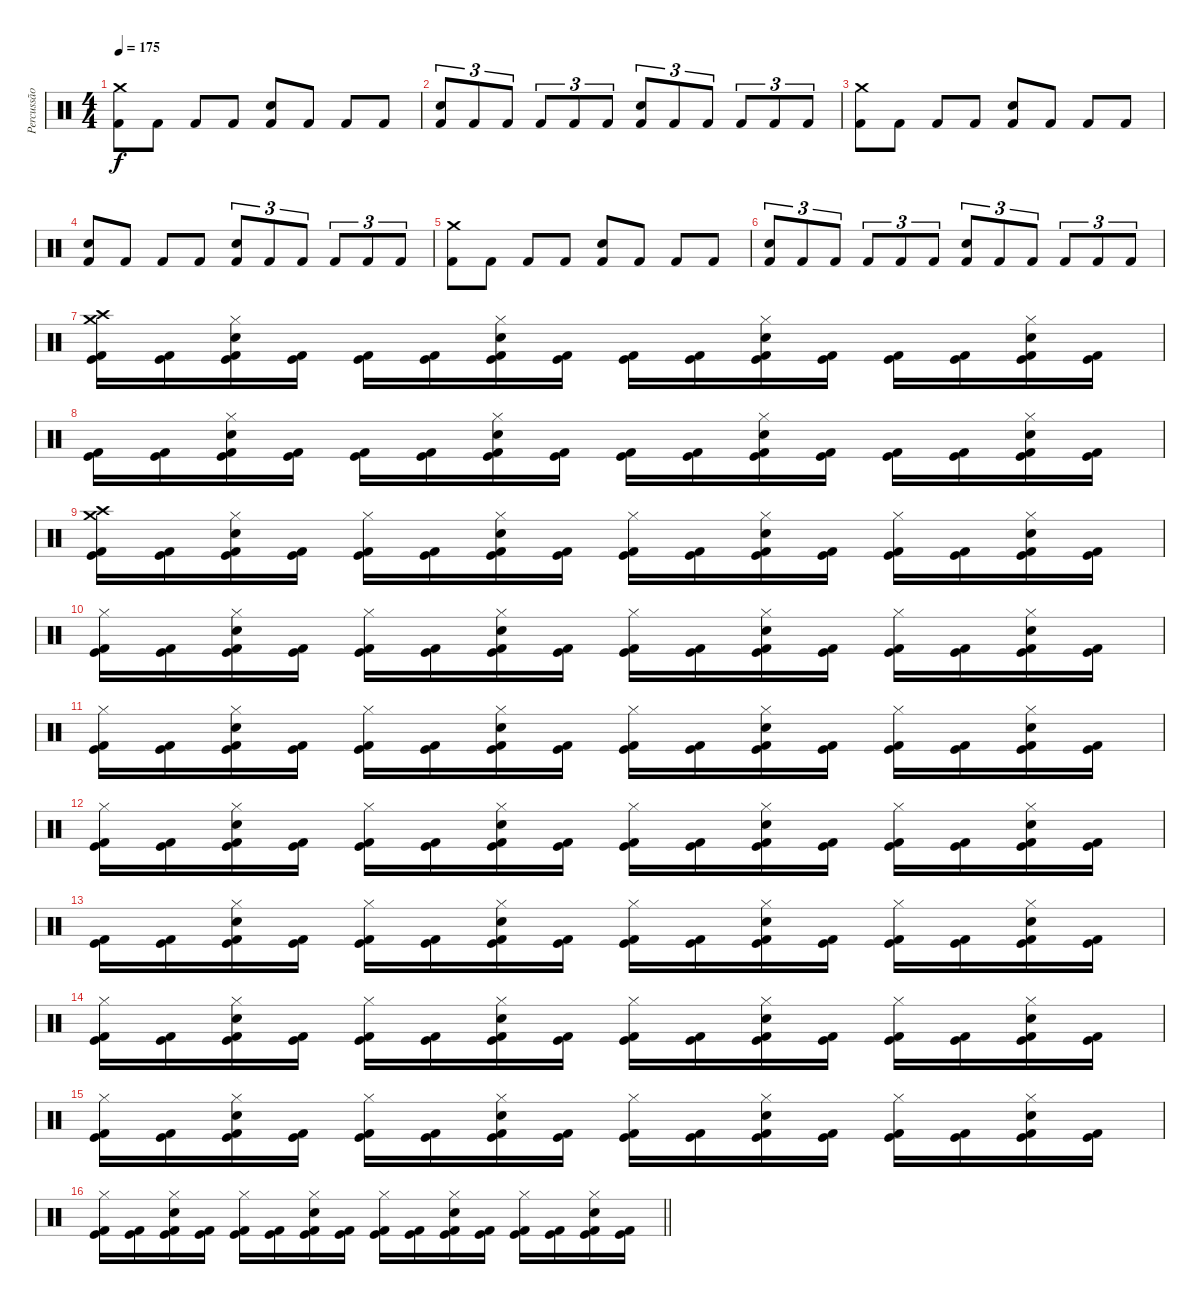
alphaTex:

\track ("Percussão" "Percussão") {instrument percussion}
\staff {score}
\articulation defaults
\ts (4 4)
\tempo 175
\clef neutral
\ks c
("Kick (hit) 2" "Crash medium (hit)").8{dy f} "Kick (hit) 2".8 "Kick (hit) 2".8 "Kick (hit) 2".8 ("Kick (hit) 2" "Electric Snare (hit)").8 "Kick (hit) 2".8 "Kick (hit) 2".8 "Kick (hit) 2".8 |
("Kick (hit) 2" "Electric Snare (hit)").8{tu (3 2)} "Kick (hit) 2".8{tu (3 2)} "Kick (hit) 2".8{tu (3 2)} "Kick (hit) 2".8{tu (3 2)} "Kick (hit) 2".8{tu (3 2)} "Kick (hit) 2".8{tu (3 2)} ("Kick (hit) 2" "Electric Snare (hit)").8{tu (3 2)} "Kick (hit) 2".8{tu (3 2)} "Kick (hit) 2".8{tu (3 2)} "Kick (hit) 2".8{tu (3 2)} "Kick (hit) 2".8{tu (3 2)} "Kick (hit) 2".8{tu (3 2)} |
("Kick (hit) 2" "Crash medium (hit)").8 "Kick (hit) 2".8 "Kick (hit) 2".8 "Kick (hit) 2".8 ("Kick (hit) 2" "Electric Snare (hit)").8 "Kick (hit) 2".8 "Kick (hit) 2".8 "Kick (hit) 2".8 |
("Kick (hit) 2" "Electric Snare (hit)").8 "Kick (hit) 2".8 "Kick (hit) 2".8 "Kick (hit) 2".8 ("Kick (hit) 2" "Electric Snare (hit)").8{tu (3 2)} "Kick (hit) 2".8{tu (3 2)} "Kick (hit) 2".8{tu (3 2)} "Kick (hit) 2".8{tu (3 2)} "Kick (hit) 2".8{tu (3 2)} "Kick (hit) 2".8{tu (3 2)} |
("Kick (hit) 2" "Crash medium (hit)").8 "Kick (hit) 2".8 "Kick (hit) 2".8 "Kick (hit) 2".8 ("Kick (hit) 2" "Electric Snare (hit)").8 "Kick (hit) 2".8 "Kick (hit) 2".8 "Kick (hit) 2".8 |
("Kick (hit) 2" "Electric Snare (hit)").8{tu (3 2)} "Kick (hit) 2".8{tu (3 2)} "Kick (hit) 2".8{tu (3 2)} "Kick (hit) 2".8{tu (3 2)} "Kick (hit) 2".8{tu (3 2)} "Kick (hit) 2".8{tu (3 2)} ("Kick (hit) 2" "Electric Snare (hit)").8{tu (3 2)} "Kick (hit) 2".8{tu (3 2)} "Kick (hit) 2".8{tu (3 2)} "Kick (hit) 2".8{tu (3 2)} "Kick (hit) 2".8{tu (3 2)} "Kick (hit) 2".8{tu (3 2)} |
("Crash high (hit)" "Crash medium (hit)" "Kick (hit)" "Kick (hit) 2").16 ("Kick (hit)" "Kick (hit) 2").16 ("Hi-Hat (closed)" "Electric Snare (hit)" "Kick (hit)" "Kick (hit) 2").16 ("Kick (hit)" "Kick (hit) 2").16 ("Kick (hit)" "Kick (hit) 2").16 ("Kick (hit)" "Kick (hit) 2").16 ("Hi-Hat (closed)" "Electric Snare (hit)" "Kick (hit)" "Kick (hit) 2").16 ("Kick (hit)" "Kick (hit) 2").16 ("Kick (hit)" "Kick (hit) 2").16 ("Kick (hit)" "Kick (hit) 2").16 ("Hi-Hat (closed)" "Electric Snare (hit)" "Kick (hit)" "Kick (hit) 2").16 ("Kick (hit)" "Kick (hit) 2").16 ("Kick (hit)" "Kick (hit) 2").16 ("Kick (hit)" "Kick (hit) 2").16 ("Hi-Hat (closed)" "Electric Snare (hit)" "Kick (hit)" "Kick (hit) 2").16 ("Kick (hit)" "Kick (hit) 2").16 |
("Kick (hit)" "Kick (hit) 2").16 ("Kick (hit)" "Kick (hit) 2").16 ("Hi-Hat (closed)" "Electric Snare (hit)" "Kick (hit)" "Kick (hit) 2").16 ("Kick (hit)" "Kick (hit) 2").16 ("Kick (hit)" "Kick (hit) 2").16 ("Kick (hit)" "Kick (hit) 2").16 ("Hi-Hat (closed)" "Electric Snare (hit)" "Kick (hit)" "Kick (hit) 2").16 ("Kick (hit)" "Kick (hit) 2").16 ("Kick (hit)" "Kick (hit) 2").16 ("Kick (hit)" "Kick (hit) 2").16 ("Hi-Hat (closed)" "Electric Snare (hit)" "Kick (hit)" "Kick (hit) 2").16 ("Kick (hit)" "Kick (hit) 2").16 ("Kick (hit)" "Kick (hit) 2").16 ("Kick (hit)" "Kick (hit) 2").16 ("Hi-Hat (closed)" "Electric Snare (hit)" "Kick (hit)" "Kick (hit) 2").16 ("Kick (hit)" "Kick (hit) 2").16 |
("Crash high (hit)" "Crash medium (hit)" "Kick (hit)" "Kick (hit) 2").16 ("Kick (hit)" "Kick (hit) 2").16 ("Hi-Hat (closed)" "Electric Snare (hit)" "Kick (hit)" "Kick (hit) 2").16 ("Kick (hit)" "Kick (hit) 2").16 ("Hi-Hat (closed)" "Kick (hit)" "Kick (hit) 2").16 ("Kick (hit)" "Kick (hit) 2").16 ("Hi-Hat (closed)" "Electric Snare (hit)" "Kick (hit)" "Kick (hit) 2").16 ("Kick (hit)" "Kick (hit) 2").16 ("Hi-Hat (closed)" "Kick (hit)" "Kick (hit) 2").16 ("Kick (hit)" "Kick (hit) 2").16 ("Hi-Hat (closed)" "Electric Snare (hit)" "Kick (hit)" "Kick (hit) 2").16 ("Kick (hit)" "Kick (hit) 2").16 ("Hi-Hat (closed)" "Kick (hit)" "Kick (hit) 2").16 ("Kick (hit)" "Kick (hit) 2").16 ("Hi-Hat (closed)" "Electric Snare (hit)" "Kick (hit)" "Kick (hit) 2").16 ("Kick (hit)" "Kick (hit) 2").16 |
("Hi-Hat (closed)" "Kick (hit)" "Kick (hit) 2").16 ("Kick (hit)" "Kick (hit) 2").16 ("Hi-Hat (closed)" "Electric Snare (hit)" "Kick (hit)" "Kick (hit) 2").16 ("Kick (hit)" "Kick (hit) 2").16 ("Hi-Hat (closed)" "Kick (hit)" "Kick (hit) 2").16 ("Kick (hit)" "Kick (hit) 2").16 ("Hi-Hat (closed)" "Electric Snare (hit)" "Kick (hit)" "Kick (hit) 2").16 ("Kick (hit)" "Kick (hit) 2").16 ("Hi-Hat (closed)" "Kick (hit)" "Kick (hit) 2").16 ("Kick (hit)" "Kick (hit) 2").16 ("Hi-Hat (closed)" "Electric Snare (hit)" "Kick (hit)" "Kick (hit) 2").16 ("Kick (hit)" "Kick (hit) 2").16 ("Hi-Hat (closed)" "Kick (hit)" "Kick (hit) 2").16 ("Kick (hit)" "Kick (hit) 2").16 ("Hi-Hat (closed)" "Electric Snare (hit)" "Kick (hit)" "Kick (hit) 2").16 ("Kick (hit)" "Kick (hit) 2").16 |
("Hi-Hat (closed)" "Kick (hit)" "Kick (hit) 2").16 ("Kick (hit)" "Kick (hit) 2").16 ("Hi-Hat (closed)" "Electric Snare (hit)" "Kick (hit)" "Kick (hit) 2").16 ("Kick (hit)" "Kick (hit) 2").16 ("Hi-Hat (closed)" "Kick (hit)" "Kick (hit) 2").16 ("Kick (hit)" "Kick (hit) 2").16 ("Hi-Hat (closed)" "Electric Snare (hit)" "Kick (hit)" "Kick (hit) 2").16 ("Kick (hit)" "Kick (hit) 2").16 ("Hi-Hat (closed)" "Kick (hit)" "Kick (hit) 2").16 ("Kick (hit)" "Kick (hit) 2").16 ("Hi-Hat (closed)" "Electric Snare (hit)" "Kick (hit)" "Kick (hit) 2").16 ("Kick (hit)" "Kick (hit) 2").16 ("Hi-Hat (closed)" "Kick (hit)" "Kick (hit) 2").16 ("Kick (hit)" "Kick (hit) 2").16 ("Hi-Hat (closed)" "Electric Snare (hit)" "Kick (hit)" "Kick (hit) 2").16 ("Kick (hit)" "Kick (hit) 2").16 |
("Hi-Hat (closed)" "Kick (hit)" "Kick (hit) 2").16 ("Kick (hit)" "Kick (hit) 2").16 ("Hi-Hat (closed)" "Electric Snare (hit)" "Kick (hit)" "Kick (hit) 2").16 ("Kick (hit)" "Kick (hit) 2").16 ("Hi-Hat (closed)" "Kick (hit)" "Kick (hit) 2").16 ("Kick (hit)" "Kick (hit) 2").16 ("Hi-Hat (closed)" "Electric Snare (hit)" "Kick (hit)" "Kick (hit) 2").16 ("Kick (hit)" "Kick (hit) 2").16 ("Hi-Hat (closed)" "Kick (hit)" "Kick (hit) 2").16 ("Kick (hit)" "Kick (hit) 2").16 ("Hi-Hat (closed)" "Electric Snare (hit)" "Kick (hit)" "Kick (hit) 2").16 ("Kick (hit)" "Kick (hit) 2").16 ("Hi-Hat (closed)" "Kick (hit)" "Kick (hit) 2").16 ("Kick (hit)" "Kick (hit) 2").16 ("Hi-Hat (closed)" "Electric Snare (hit)" "Kick (hit)" "Kick (hit) 2").16 ("Kick (hit)" "Kick (hit) 2").16 |
("Kick (hit)" "Kick (hit) 2").16 ("Kick (hit)" "Kick (hit) 2").16 ("Hi-Hat (closed)" "Electric Snare (hit)" "Kick (hit)" "Kick (hit) 2").16 ("Kick (hit)" "Kick (hit) 2").16 ("Hi-Hat (closed)" "Kick (hit)" "Kick (hit) 2").16 ("Kick (hit)" "Kick (hit) 2").16 ("Hi-Hat (closed)" "Electric Snare (hit)" "Kick (hit)" "Kick (hit) 2").16 ("Kick (hit)" "Kick (hit) 2").16 ("Hi-Hat (closed)" "Kick (hit)" "Kick (hit) 2").16 ("Kick (hit)" "Kick (hit) 2").16 ("Hi-Hat (closed)" "Electric Snare (hit)" "Kick (hit)" "Kick (hit) 2").16 ("Kick (hit)" "Kick (hit) 2").16 ("Hi-Hat (closed)" "Kick (hit)" "Kick (hit) 2").16 ("Kick (hit)" "Kick (hit) 2").16 ("Hi-Hat (closed)" "Electric Snare (hit)" "Kick (hit)" "Kick (hit) 2").16 ("Kick (hit)" "Kick (hit) 2").16 |
("Hi-Hat (closed)" "Kick (hit)" "Kick (hit) 2").16 ("Kick (hit)" "Kick (hit) 2").16 ("Hi-Hat (closed)" "Electric Snare (hit)" "Kick (hit)" "Kick (hit) 2").16 ("Kick (hit)" "Kick (hit) 2").16 ("Hi-Hat (closed)" "Kick (hit)" "Kick (hit) 2").16 ("Kick (hit)" "Kick (hit) 2").16 ("Hi-Hat (closed)" "Electric Snare (hit)" "Kick (hit)" "Kick (hit) 2").16 ("Kick (hit)" "Kick (hit) 2").16 ("Hi-Hat (closed)" "Kick (hit)" "Kick (hit) 2").16 ("Kick (hit)" "Kick (hit) 2").16 ("Hi-Hat (closed)" "Electric Snare (hit)" "Kick (hit)" "Kick (hit) 2").16 ("Kick (hit)" "Kick (hit) 2").16 ("Hi-Hat (closed)" "Kick (hit)" "Kick (hit) 2").16 ("Kick (hit)" "Kick (hit) 2").16 ("Hi-Hat (closed)" "Electric Snare (hit)" "Kick (hit)" "Kick (hit) 2").16 ("Kick (hit)" "Kick (hit) 2").16 |
("Hi-Hat (closed)" "Kick (hit)" "Kick (hit) 2").16 ("Kick (hit)" "Kick (hit) 2").16 ("Hi-Hat (closed)" "Electric Snare (hit)" "Kick (hit)" "Kick (hit) 2").16 ("Kick (hit)" "Kick (hit) 2").16 ("Hi-Hat (closed)" "Kick (hit)" "Kick (hit) 2").16 ("Kick (hit)" "Kick (hit) 2").16 ("Hi-Hat (closed)" "Electric Snare (hit)" "Kick (hit)" "Kick (hit) 2").16 ("Kick (hit)" "Kick (hit) 2").16 ("Hi-Hat (closed)" "Kick (hit)" "Kick (hit) 2").16 ("Kick (hit)" "Kick (hit) 2").16 ("Hi-Hat (closed)" "Electric Snare (hit)" "Kick (hit)" "Kick (hit) 2").16 ("Kick (hit)" "Kick (hit) 2").16 ("Hi-Hat (closed)" "Kick (hit)" "Kick (hit) 2").16 ("Kick (hit)" "Kick (hit) 2").16 ("Hi-Hat (closed)" "Electric Snare (hit)" "Kick (hit)" "Kick (hit) 2").16 ("Kick (hit)" "Kick (hit) 2").16 |
\barLineRight lightlight
("Hi-Hat (closed)" "Kick (hit)" "Kick (hit) 2").16 ("Kick (hit)" "Kick (hit) 2").16 ("Hi-Hat (closed)" "Electric Snare (hit)" "Kick (hit)" "Kick (hit) 2").16 ("Kick (hit)" "Kick (hit) 2").16 ("Hi-Hat (closed)" "Kick (hit)" "Kick (hit) 2").16 ("Kick (hit)" "Kick (hit) 2").16 ("Hi-Hat (closed)" "Electric Snare (hit)" "Kick (hit)" "Kick (hit) 2").16 ("Kick (hit)" "Kick (hit) 2").16 ("Hi-Hat (closed)" "Kick (hit)" "Kick (hit) 2").16 ("Kick (hit)" "Kick (hit) 2").16 ("Hi-Hat (closed)" "Electric Snare (hit)" "Kick (hit)" "Kick (hit) 2").16 ("Kick (hit)" "Kick (hit) 2").16 ("Hi-Hat (closed)" "Kick (hit)" "Kick (hit) 2").16 ("Kick (hit)" "Kick (hit) 2").16 ("Hi-Hat (closed)" "Electric Snare (hit)" "Kick (hit)" "Kick (hit) 2").16 ("Kick (hit)" "Kick (hit) 2").16
